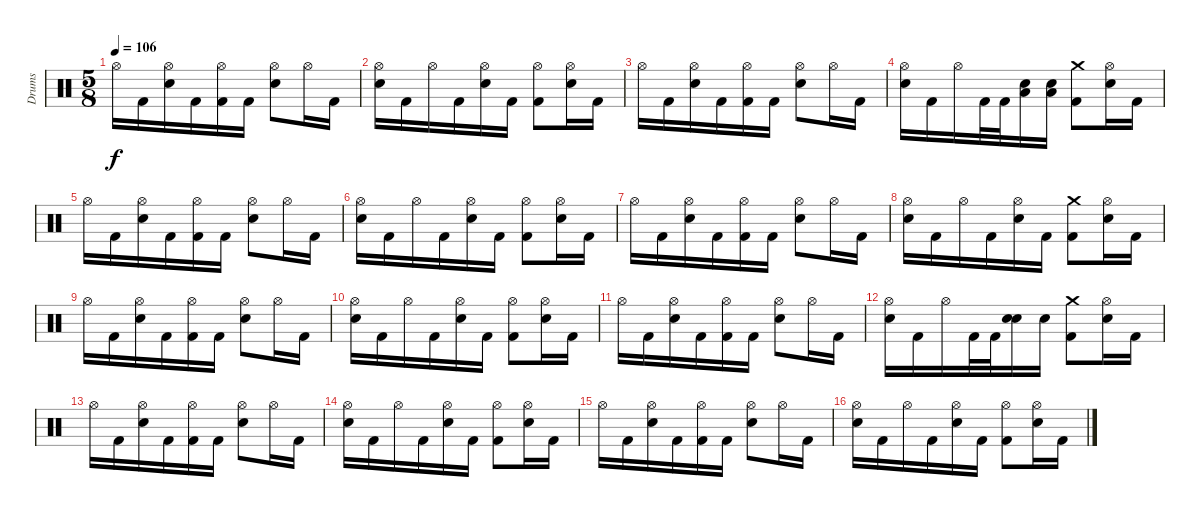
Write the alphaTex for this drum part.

\track ("Drums" "Drums") {instrument percussion}
\staff {score}
\articulation defaults
\ts (5 8)
\tempo 106
\clef neutral
\ks c "Hi-Hat (open)".16{dy f} "Kick (hit) 2".16
("Electric Snare (hit)" "Hi-Hat (open)").16 "Kick (hit) 2".16 ("Kick (hit) 2" "Hi-Hat (open)").16 "Kick (hit) 2".16 ("Electric Snare (hit)" "Hi-Hat (open)").8 "Hi-Hat (open)".16 "Kick (hit) 2".16 |
("Electric Snare (hit)" "Hi-Hat (open)").16 "Kick (hit) 2".16 "Hi-Hat (open)".16 "Kick (hit) 2".16 ("Electric Snare (hit)" "Hi-Hat (open)").16 "Kick (hit) 2".16 ("Kick (hit) 2" "Hi-Hat (open)").8 ("Electric Snare (hit)" "Hi-Hat (open)").16 "Kick (hit) 2".16 |
"Hi-Hat (open)".16 "Kick (hit) 2".16 ("Electric Snare (hit)" "Hi-Hat (open)").16 "Kick (hit) 2".16 ("Kick (hit) 2" "Hi-Hat (open)").16 "Kick (hit) 2".16 ("Electric Snare (hit)" "Hi-Hat (open)").8 "Hi-Hat (open)".16 "Kick (hit) 2".16 |
("Electric Snare (hit)" "Hi-Hat (open)").16 "Kick (hit) 2".16 "Hi-Hat (open)".16 "Kick (hit) 2".32 "Kick (hit) 2".32 ("Low Tom (hit)" "Electric Snare (hit)").16 ("Low Tom (hit)" "Electric Snare (hit)").16 ("Kick (hit) 2" "Crash medium (hit)").8 ("Electric Snare (hit)" "Hi-Hat (open)").16 "Kick (hit) 2".16 |
"Hi-Hat (open)".16 "Kick (hit) 2".16 ("Electric Snare (hit)" "Hi-Hat (open)").16 "Kick (hit) 2".16 ("Kick (hit) 2" "Hi-Hat (open)").16 "Kick (hit) 2".16 ("Electric Snare (hit)" "Hi-Hat (open)").8 "Hi-Hat (open)".16 "Kick (hit) 2".16 |
("Electric Snare (hit)" "Hi-Hat (open)").16 "Kick (hit) 2".16 "Hi-Hat (open)".16 "Kick (hit) 2".16 ("Electric Snare (hit)" "Hi-Hat (open)").16 "Kick (hit) 2".16 ("Kick (hit) 2" "Hi-Hat (open)").8 ("Electric Snare (hit)" "Hi-Hat (open)").16 "Kick (hit) 2".16 |
"Hi-Hat (open)".16 "Kick (hit) 2".16 ("Electric Snare (hit)" "Hi-Hat (open)").16 "Kick (hit) 2".16 ("Kick (hit) 2" "Hi-Hat (open)").16 "Kick (hit) 2".16 ("Electric Snare (hit)" "Hi-Hat (open)").8 "Hi-Hat (open)".16 "Kick (hit) 2".16 |
("Electric Snare (hit)" "Hi-Hat (open)").16 "Kick (hit) 2".16 "Hi-Hat (open)".16 "Kick (hit) 2".16 ("Electric Snare (hit)" "Hi-Hat (open)").16 "Kick (hit) 2".16 ("Crash medium (hit)" "Kick (hit) 2").8 ("Electric Snare (hit)" "Hi-Hat (open)").16 "Kick (hit) 2".16 |
"Hi-Hat (open)".16 "Kick (hit) 2".16 ("Electric Snare (hit)" "Hi-Hat (open)").16 "Kick (hit) 2".16 ("Kick (hit) 2" "Hi-Hat (open)").16 "Kick (hit) 2".16 ("Electric Snare (hit)" "Hi-Hat (open)").8 "Hi-Hat (open)".16 "Kick (hit) 2".16 |
("Electric Snare (hit)" "Hi-Hat (open)").16 "Kick (hit) 2".16 "Hi-Hat (open)".16 "Kick (hit) 2".16 ("Electric Snare (hit)" "Hi-Hat (open)").16 "Kick (hit) 2".16 ("Kick (hit) 2" "Hi-Hat (open)").8 ("Electric Snare (hit)" "Hi-Hat (open)").16 "Kick (hit) 2".16 |
"Hi-Hat (open)".16 "Kick (hit) 2".16 ("Electric Snare (hit)" "Hi-Hat (open)").16 "Kick (hit) 2".16 ("Kick (hit) 2" "Hi-Hat (open)").16 "Kick (hit) 2".16 ("Electric Snare (hit)" "Hi-Hat (open)").8 "Hi-Hat (open)".16 "Kick (hit) 2".16 |
("Electric Snare (hit)" "Hi-Hat (open)").16 "Kick (hit) 2".16 "Hi-Hat (open)".16 "Kick (hit) 2".32 "Kick (hit) 2".32 ("Electric Snare (hit)" "Electric Snare (hit)").16 "Electric Snare (hit)".16 ("Kick (hit) 2" "Crash medium (hit)").8 ("Electric Snare (hit)" "Hi-Hat (open)").16 "Kick (hit) 2".16 |
"Hi-Hat (open)".16 "Kick (hit) 2".16 ("Electric Snare (hit)" "Hi-Hat (open)").16 "Kick (hit) 2".16 ("Kick (hit) 2" "Hi-Hat (open)").16 "Kick (hit) 2".16 ("Electric Snare (hit)" "Hi-Hat (open)").8 "Hi-Hat (open)".16 "Kick (hit) 2".16 |
("Electric Snare (hit)" "Hi-Hat (open)").16 "Kick (hit) 2".16 "Hi-Hat (open)".16 "Kick (hit) 2".16 ("Electric Snare (hit)" "Hi-Hat (open)").16 "Kick (hit) 2".16 ("Kick (hit) 2" "Hi-Hat (open)").8 ("Electric Snare (hit)" "Hi-Hat (open)").16 "Kick (hit) 2".16 |
"Hi-Hat (open)".16 "Kick (hit) 2".16 ("Electric Snare (hit)" "Hi-Hat (open)").16 "Kick (hit) 2".16 ("Kick (hit) 2" "Hi-Hat (open)").16 "Kick (hit) 2".16 ("Electric Snare (hit)" "Hi-Hat (open)").8 "Hi-Hat (open)".16 "Kick (hit) 2".16 |
("Electric Snare (hit)" "Hi-Hat (open)").16 "Kick (hit) 2".16 "Hi-Hat (open)".16 "Kick (hit) 2".16 ("Electric Snare (hit)" "Hi-Hat (open)").16 "Kick (hit) 2".16 ("Kick (hit) 2" "Hi-Hat (open)").8 ("Electric Snare (hit)" "Hi-Hat (open)").16 "Kick (hit) 2".16
